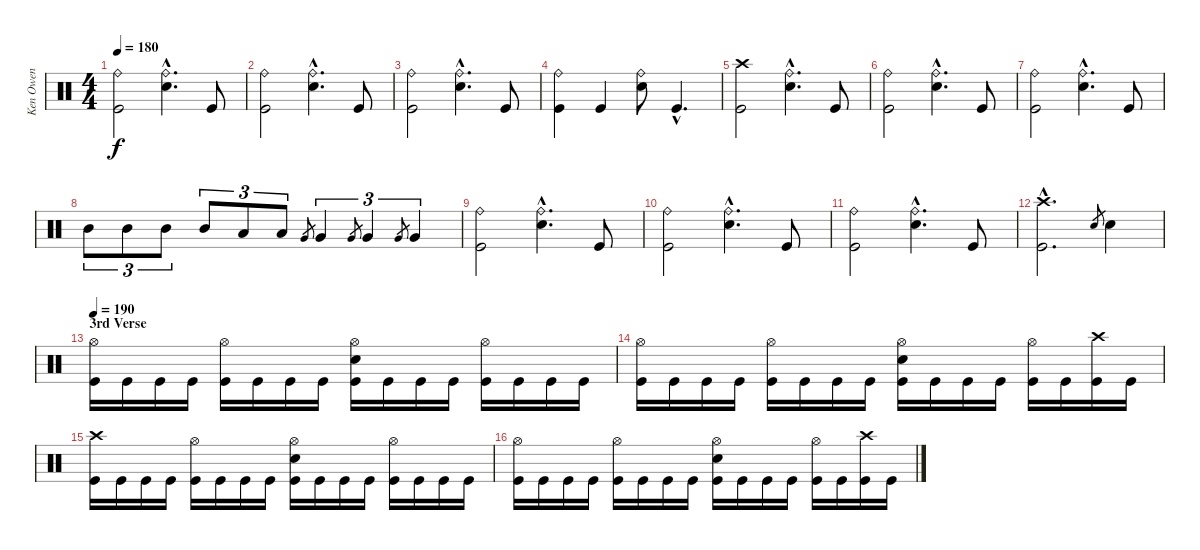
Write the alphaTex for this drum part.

\track ("Ken Owen" "Ken Owen") {instrument percussion}
\staff {score}
\articulation defaults
\ts (4 4)
\tempo 180
\clef neutral
\ks c
("Ride (bell)" "Kick (hit)").2{dy f} ("Ride (bell)"{hac} "Snare (hit) 2"{hac}).4{d} "Kick (hit)".8 |
("Ride (bell)" "Kick (hit)").2 ("Ride (bell)"{hac} "Snare (hit) 2"{hac}).4{d} "Kick (hit)".8 |
("Ride (bell)" "Kick (hit)").2 ("Ride (bell)"{hac} "Snare (hit) 2"{hac}).4{d} "Kick (hit)".8 |
("Ride (bell)" "Kick (hit)").4 "Kick (hit)".4 ("Ride (bell)" "Snare (hit) 2").8 "Kick (hit)"{hac}.4{d} |
("Crash high (hit)" "Kick (hit)").2 ("Ride (bell)"{hac} "Snare (hit) 2"{hac}).4{d} "Kick (hit)".8 |
("Ride (bell)" "Kick (hit)").2 ("Ride (bell)"{hac} "Snare (hit) 2"{hac}).4{d} "Kick (hit)".8 |
("Ride (bell)" "Kick (hit)").2 ("Ride (bell)"{hac} "Snare (hit) 2"{hac}).4{d} "Kick (hit)".8 |
"Mid Tom (hit)".8{tu (3 2)} "Mid Tom (hit)".8{tu (3 2)} "Mid Tom (hit)".8{tu (3 2)} "Mid Tom (hit)".8{tu (3 2)} "Low Tom (hit)".8{tu (3 2)} "Low Tom (hit)".8{tu (3 2)} "Very Low Tom (hit)".8{gr} "Very Low Tom (hit)".4{tu (3 2)} "Very Low Tom (hit)".8{gr} "Very Low Tom (hit)".4{tu (3 2)} "Very Low Tom (hit)".8{gr} "Very Low Tom (hit)".4{tu (3 2)} |
("Ride (bell)" "Kick (hit)").2 ("Ride (bell)"{hac} "Snare (hit) 2"{hac}).4{d} "Kick (hit)".8 |
("Ride (bell)" "Kick (hit)").2 ("Ride (bell)"{hac} "Snare (hit) 2"{hac}).4{d} "Kick (hit)".8 |
("Ride (bell)" "Kick (hit)").2 ("Ride (bell)"{hac} "Snare (hit) 2"{hac}).4{d} "Kick (hit)".8 |
("Crash high (hit)"{hac} "Kick (hit)"{hac}).2{d} "Snare (hit) 2".8{gr} "Snare (hit) 2".4 |
\section ("" "3rd Verse")
\tempo 190
("Hi-Hat (open)" "Kick (hit)").16 "Kick (hit)".16 "Kick (hit)".16 "Kick (hit)".16 ("Hi-Hat (open)" "Kick (hit)").16 "Kick (hit)".16 "Kick (hit)".16 "Kick (hit)".16 ("Hi-Hat (open)" "Snare (hit) 2" "Kick (hit)").16 "Kick (hit)".16 "Kick (hit)".16 "Kick (hit)".16 ("Hi-Hat (open)" "Kick (hit)").16 "Kick (hit)".16 "Kick (hit)".16 "Kick (hit)".16 |
("Hi-Hat (open)" "Kick (hit)").16 "Kick (hit)".16 "Kick (hit)".16 "Kick (hit)".16 ("Hi-Hat (open)" "Kick (hit)").16 "Kick (hit)".16 "Kick (hit)".16 "Kick (hit)".16 ("Hi-Hat (open)" "Snare (hit) 2" "Kick (hit)").16 "Kick (hit)".16 "Kick (hit)".16 "Kick (hit)".16 ("Hi-Hat (open)" "Kick (hit)").16 "Kick (hit)".16 ("Crash high (hit)" "Kick (hit)").16 "Kick (hit)".16 |
("Crash high (hit)" "Kick (hit)").16 "Kick (hit)".16 "Kick (hit)".16 "Kick (hit)".16 ("Hi-Hat (open)" "Kick (hit)").16 "Kick (hit)".16 "Kick (hit)".16 "Kick (hit)".16 ("Hi-Hat (open)" "Snare (hit) 2" "Kick (hit)").16 "Kick (hit)".16 "Kick (hit)".16 "Kick (hit)".16 ("Hi-Hat (open)" "Kick (hit)").16 "Kick (hit)".16 "Kick (hit)".16 "Kick (hit)".16 |
("Hi-Hat (open)" "Kick (hit)").16 "Kick (hit)".16 "Kick (hit)".16 "Kick (hit)".16 ("Hi-Hat (open)" "Kick (hit)").16 "Kick (hit)".16 "Kick (hit)".16 "Kick (hit)".16 ("Hi-Hat (open)" "Snare (hit) 2" "Kick (hit)").16 "Kick (hit)".16 "Kick (hit)".16 "Kick (hit)".16 ("Hi-Hat (open)" "Kick (hit)").16 "Kick (hit)".16 ("Crash high (hit)" "Kick (hit)").16 "Kick (hit)".16
